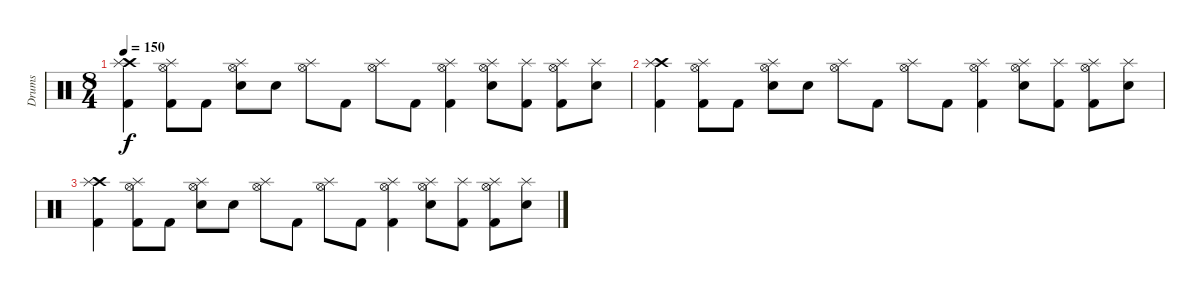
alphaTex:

\track ("Drums" "Drums") {instrument percussion}
\staff {score}
\articulation defaults
\ts (8 4)
\tempo 150
\clef neutral
\ks c
("Crash high (hit)" "Kick (hit) 2" "Splash (hit)").4{dy f} ("Hi-Hat (open)" "Kick (hit) 2" "Splash (hit)").8 "Kick (hit) 2".8 ("Hi-Hat (open)" "Electric Snare (hit)" "Splash (hit)").8 "Electric Snare (hit)".8 ("Hi-Hat (open)" "Splash (hit)").8 "Kick (hit) 2".8 ("Hi-Hat (open)" "Splash (hit)").8 "Kick (hit) 2".8 ("Hi-Hat (open)" "Kick (hit) 2" "Splash (hit)").4 ("Hi-Hat (open)" "Electric Snare (hit)" "Splash (hit)").8 ("Kick (hit) 2" "Splash (hit)").8 ("Hi-Hat (open)" "Kick (hit) 2" "Splash (hit)").8 ("Electric Snare (hit)" "Splash (hit)").8 |
("Crash high (hit)" "Kick (hit) 2" "Splash (hit)").4 ("Hi-Hat (open)" "Kick (hit) 2" "Splash (hit)").8 "Kick (hit) 2".8 ("Hi-Hat (open)" "Electric Snare (hit)" "Splash (hit)").8 "Electric Snare (hit)".8 ("Hi-Hat (open)" "Splash (hit)").8 "Kick (hit) 2".8 ("Hi-Hat (open)" "Splash (hit)").8 "Kick (hit) 2".8 ("Hi-Hat (open)" "Kick (hit) 2" "Splash (hit)").4 ("Hi-Hat (open)" "Electric Snare (hit)" "Splash (hit)").8 ("Kick (hit) 2" "Splash (hit)").8 ("Hi-Hat (open)" "Kick (hit) 2" "Splash (hit)").8 ("Electric Snare (hit)" "Splash (hit)").8 |
("Crash high (hit)" "Kick (hit) 2" "Splash (hit)").4 ("Hi-Hat (open)" "Kick (hit) 2" "Splash (hit)").8 "Kick (hit) 2".8 ("Hi-Hat (open)" "Electric Snare (hit)" "Splash (hit)").8 "Electric Snare (hit)".8 ("Hi-Hat (open)" "Splash (hit)").8 "Kick (hit) 2".8 ("Hi-Hat (open)" "Splash (hit)").8 "Kick (hit) 2".8 ("Hi-Hat (open)" "Kick (hit) 2" "Splash (hit)").4 ("Hi-Hat (open)" "Electric Snare (hit)" "Splash (hit)").8 ("Kick (hit) 2" "Splash (hit)").8 ("Hi-Hat (open)" "Kick (hit) 2" "Splash (hit)").8 ("Electric Snare (hit)" "Splash (hit)").8
